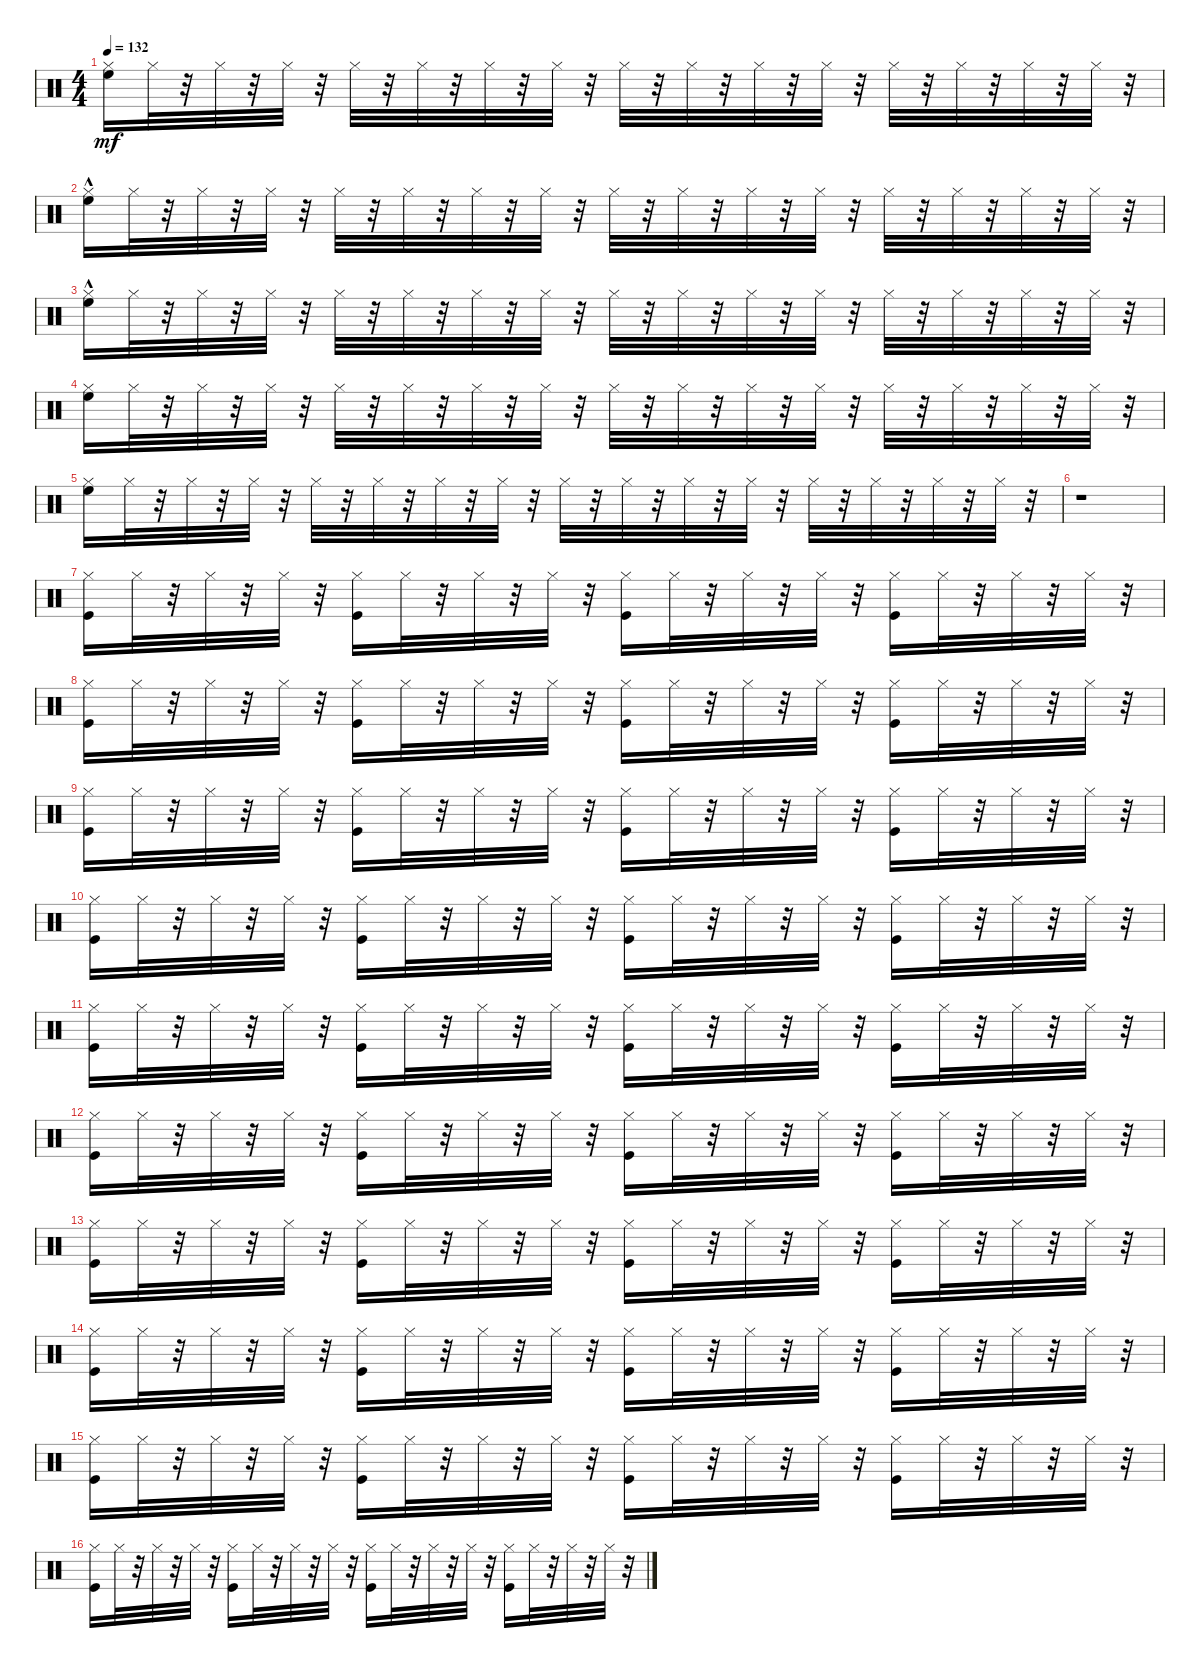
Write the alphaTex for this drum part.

\track "" {instrument percussion}
\staff {score}
\articulation defaults
\ts (4 4)
\tempo 132
\clef neutral
\ks c
("Hi-Hat (closed)" "High Floor Tom (hit)").16{dy mf} "Hi-Hat (closed)".32 r.32 "Hi-Hat (closed)".32 r.32 "Hi-Hat (closed)".32 r.32 "Hi-Hat (closed)".32 r.32 "Hi-Hat (closed)".32 r.32 "Hi-Hat (closed)".32 r.32 "Hi-Hat (closed)".32 r.32 "Hi-Hat (closed)".32 r.32 "Hi-Hat (closed)".32 r.32 "Hi-Hat (closed)".32 r.32 "Hi-Hat (closed)".32 r.32 "Hi-Hat (closed)".32 r.32 "Hi-Hat (closed)".32 r.32 "Hi-Hat (closed)".32 r.32 "Hi-Hat (closed)".32 r.32 |
("Hi-Hat (closed)" "High Floor Tom (hit)"{hac}).16 "Hi-Hat (closed)".32 r.32 "Hi-Hat (closed)".32 r.32 "Hi-Hat (closed)".32 r.32 "Hi-Hat (closed)".32 r.32 "Hi-Hat (closed)".32 r.32 "Hi-Hat (closed)".32 r.32 "Hi-Hat (closed)".32 r.32 "Hi-Hat (closed)".32 r.32 "Hi-Hat (closed)".32 r.32 "Hi-Hat (closed)".32 r.32 "Hi-Hat (closed)".32 r.32 "Hi-Hat (closed)".32 r.32 "Hi-Hat (closed)".32 r.32 "Hi-Hat (closed)".32 r.32 "Hi-Hat (closed)".32 r.32 |
("Hi-Hat (closed)" "High Floor Tom (hit)"{hac}).16 "Hi-Hat (closed)".32 r.32 "Hi-Hat (closed)".32 r.32 "Hi-Hat (closed)".32 r.32 "Hi-Hat (closed)".32 r.32 "Hi-Hat (closed)".32 r.32 "Hi-Hat (closed)".32 r.32 "Hi-Hat (closed)".32 r.32 "Hi-Hat (closed)".32 r.32 "Hi-Hat (closed)".32 r.32 "Hi-Hat (closed)".32 r.32 "Hi-Hat (closed)".32 r.32 "Hi-Hat (closed)".32 r.32 "Hi-Hat (closed)".32 r.32 "Hi-Hat (closed)".32 r.32 "Hi-Hat (closed)".32 r.32 |
("Hi-Hat (closed)" "High Floor Tom (hit)").16 "Hi-Hat (closed)".32 r.32 "Hi-Hat (closed)".32 r.32 "Hi-Hat (closed)".32 r.32 "Hi-Hat (closed)".32 r.32 "Hi-Hat (closed)".32 r.32 "Hi-Hat (closed)".32 r.32 "Hi-Hat (closed)".32 r.32 "Hi-Hat (closed)".32 r.32 "Hi-Hat (closed)".32 r.32 "Hi-Hat (closed)".32 r.32 "Hi-Hat (closed)".32 r.32 "Hi-Hat (closed)".32 r.32 "Hi-Hat (closed)".32 r.32 "Hi-Hat (closed)".32 r.32 "Hi-Hat (closed)".32 r.32 |
("Hi-Hat (closed)" "High Floor Tom (hit)").16 "Hi-Hat (closed)".32 r.32 "Hi-Hat (closed)".32 r.32 "Hi-Hat (closed)".32 r.32 "Hi-Hat (closed)".32 r.32 "Hi-Hat (closed)".32 r.32 "Hi-Hat (closed)".32 r.32 "Hi-Hat (closed)".32 r.32 "Hi-Hat (closed)".32 r.32 "Hi-Hat (closed)".32 r.32 "Hi-Hat (closed)".32 r.32 "Hi-Hat (closed)".32 r.32 "Hi-Hat (closed)".32 r.32 "Hi-Hat (closed)".32 r.32 "Hi-Hat (closed)".32 r.32 "Hi-Hat (closed)".32 r.32 |
r.1 |
("Hi-Hat (closed)" "Kick (hit)").16 "Hi-Hat (closed)".32 r.32 "Hi-Hat (closed)".32 r.32 "Hi-Hat (closed)".32 r.32 ("Hi-Hat (closed)" "Kick (hit)").16 "Hi-Hat (closed)".32 r.32 "Hi-Hat (closed)".32 r.32 "Hi-Hat (closed)".32 r.32 ("Hi-Hat (closed)" "Kick (hit)").16 "Hi-Hat (closed)".32 r.32 "Hi-Hat (closed)".32 r.32 "Hi-Hat (closed)".32 r.32 ("Hi-Hat (closed)" "Kick (hit)").16 "Hi-Hat (closed)".32 r.32 "Hi-Hat (closed)".32 r.32 "Hi-Hat (closed)".32 r.32 |
("Hi-Hat (closed)" "Kick (hit)").16 "Hi-Hat (closed)".32 r.32 "Hi-Hat (closed)".32 r.32 "Hi-Hat (closed)".32 r.32 ("Hi-Hat (closed)" "Kick (hit)").16 "Hi-Hat (closed)".32 r.32 "Hi-Hat (closed)".32 r.32 "Hi-Hat (closed)".32 r.32 ("Hi-Hat (closed)" "Kick (hit)").16 "Hi-Hat (closed)".32 r.32 "Hi-Hat (closed)".32 r.32 "Hi-Hat (closed)".32 r.32 ("Hi-Hat (closed)" "Kick (hit)").16 "Hi-Hat (closed)".32 r.32 "Hi-Hat (closed)".32 r.32 "Hi-Hat (closed)".32 r.32 |
("Hi-Hat (closed)" "Kick (hit)").16 "Hi-Hat (closed)".32 r.32 "Hi-Hat (closed)".32 r.32 "Hi-Hat (closed)".32 r.32 ("Hi-Hat (closed)" "Kick (hit)").16 "Hi-Hat (closed)".32 r.32 "Hi-Hat (closed)".32 r.32 "Hi-Hat (closed)".32 r.32 ("Hi-Hat (closed)" "Kick (hit)").16 "Hi-Hat (closed)".32 r.32 "Hi-Hat (closed)".32 r.32 "Hi-Hat (closed)".32 r.32 ("Hi-Hat (closed)" "Kick (hit)").16 "Hi-Hat (closed)".32 r.32 "Hi-Hat (closed)".32 r.32 "Hi-Hat (closed)".32 r.32 |
("Hi-Hat (closed)" "Kick (hit)").16 "Hi-Hat (closed)".32 r.32 "Hi-Hat (closed)".32 r.32 "Hi-Hat (closed)".32 r.32 ("Hi-Hat (closed)" "Kick (hit)").16 "Hi-Hat (closed)".32 r.32 "Hi-Hat (closed)".32 r.32 "Hi-Hat (closed)".32 r.32 ("Hi-Hat (closed)" "Kick (hit)").16 "Hi-Hat (closed)".32 r.32 "Hi-Hat (closed)".32 r.32 "Hi-Hat (closed)".32 r.32 ("Hi-Hat (closed)" "Kick (hit)").16 "Hi-Hat (closed)".32 r.32 "Hi-Hat (closed)".32 r.32 "Hi-Hat (closed)".32 r.32 |
("Hi-Hat (closed)" "Kick (hit)").16 "Hi-Hat (closed)".32 r.32 "Hi-Hat (closed)".32 r.32 "Hi-Hat (closed)".32 r.32 ("Hi-Hat (closed)" "Kick (hit)").16 "Hi-Hat (closed)".32 r.32 "Hi-Hat (closed)".32 r.32 "Hi-Hat (closed)".32 r.32 ("Hi-Hat (closed)" "Kick (hit)").16 "Hi-Hat (closed)".32 r.32 "Hi-Hat (closed)".32 r.32 "Hi-Hat (closed)".32 r.32 ("Hi-Hat (closed)" "Kick (hit)").16 "Hi-Hat (closed)".32 r.32 "Hi-Hat (closed)".32 r.32 "Hi-Hat (closed)".32 r.32 |
("Hi-Hat (closed)" "Kick (hit)").16 "Hi-Hat (closed)".32 r.32 "Hi-Hat (closed)".32 r.32 "Hi-Hat (closed)".32 r.32 ("Hi-Hat (closed)" "Kick (hit)").16 "Hi-Hat (closed)".32 r.32 "Hi-Hat (closed)".32 r.32 "Hi-Hat (closed)".32 r.32 ("Hi-Hat (closed)" "Kick (hit)").16 "Hi-Hat (closed)".32 r.32 "Hi-Hat (closed)".32 r.32 "Hi-Hat (closed)".32 r.32 ("Hi-Hat (closed)" "Kick (hit)").16 "Hi-Hat (closed)".32 r.32 "Hi-Hat (closed)".32 r.32 "Hi-Hat (closed)".32 r.32 |
("Hi-Hat (closed)" "Kick (hit)").16 "Hi-Hat (closed)".32 r.32 "Hi-Hat (closed)".32 r.32 "Hi-Hat (closed)".32 r.32 ("Hi-Hat (closed)" "Kick (hit)").16 "Hi-Hat (closed)".32 r.32 "Hi-Hat (closed)".32 r.32 "Hi-Hat (closed)".32 r.32 ("Hi-Hat (closed)" "Kick (hit)").16 "Hi-Hat (closed)".32 r.32 "Hi-Hat (closed)".32 r.32 "Hi-Hat (closed)".32 r.32 ("Hi-Hat (closed)" "Kick (hit)").16 "Hi-Hat (closed)".32 r.32 "Hi-Hat (closed)".32 r.32 "Hi-Hat (closed)".32 r.32 |
("Hi-Hat (closed)" "Kick (hit)").16 "Hi-Hat (closed)".32 r.32 "Hi-Hat (closed)".32 r.32 "Hi-Hat (closed)".32 r.32 ("Hi-Hat (closed)" "Kick (hit)").16 "Hi-Hat (closed)".32 r.32 "Hi-Hat (closed)".32 r.32 "Hi-Hat (closed)".32 r.32 ("Hi-Hat (closed)" "Kick (hit)").16 "Hi-Hat (closed)".32 r.32 "Hi-Hat (closed)".32 r.32 "Hi-Hat (closed)".32 r.32 ("Hi-Hat (closed)" "Kick (hit)").16 "Hi-Hat (closed)".32 r.32 "Hi-Hat (closed)".32 r.32 "Hi-Hat (closed)".32 r.32 |
("Hi-Hat (closed)" "Kick (hit)").16 "Hi-Hat (closed)".32 r.32 "Hi-Hat (closed)".32 r.32 "Hi-Hat (closed)".32 r.32 ("Hi-Hat (closed)" "Kick (hit)").16 "Hi-Hat (closed)".32 r.32 "Hi-Hat (closed)".32 r.32 "Hi-Hat (closed)".32 r.32 ("Hi-Hat (closed)" "Kick (hit)").16 "Hi-Hat (closed)".32 r.32 "Hi-Hat (closed)".32 r.32 "Hi-Hat (closed)".32 r.32 ("Hi-Hat (closed)" "Kick (hit)").16 "Hi-Hat (closed)".32 r.32 "Hi-Hat (closed)".32 r.32 "Hi-Hat (closed)".32 r.32 |
("Hi-Hat (closed)" "Kick (hit)").16 "Hi-Hat (closed)".32 r.32 "Hi-Hat (closed)".32 r.32 "Hi-Hat (closed)".32 r.32 ("Hi-Hat (closed)" "Kick (hit)").16 "Hi-Hat (closed)".32 r.32 "Hi-Hat (closed)".32 r.32 "Hi-Hat (closed)".32 r.32 ("Hi-Hat (closed)" "Kick (hit)").16 "Hi-Hat (closed)".32 r.32 "Hi-Hat (closed)".32 r.32 "Hi-Hat (closed)".32 r.32 ("Hi-Hat (closed)" "Kick (hit)").16 "Hi-Hat (closed)".32 r.32 "Hi-Hat (closed)".32 r.32 "Hi-Hat (closed)".32 r.32
